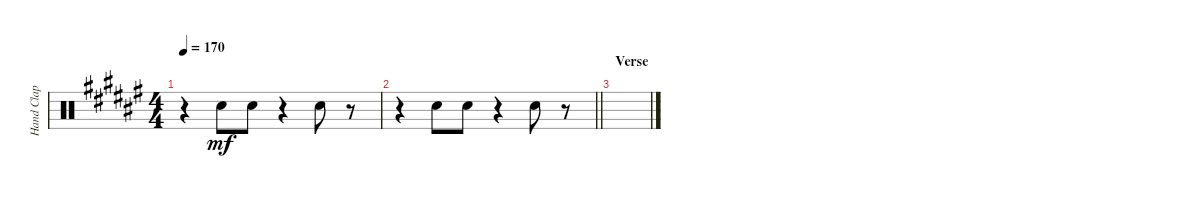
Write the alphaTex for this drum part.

\track ("Hand Clap" "Hand Clap") {instrument percussion}
\staff {score}
\articulation defaults
\ts (4 4)
\tempo 170
\clef neutral
\ks f#
r.4{dy mf} "Hand Clap (hit)".8 "Hand Clap (hit)".8 r.4 "Hand Clap (hit)".8 r.8 |
\barLineRight lightlight
r.4 "Hand Clap (hit)".8 "Hand Clap (hit)".8 r.4 "Hand Clap (hit)".8 r.8 |
\section ("" "Verse")
